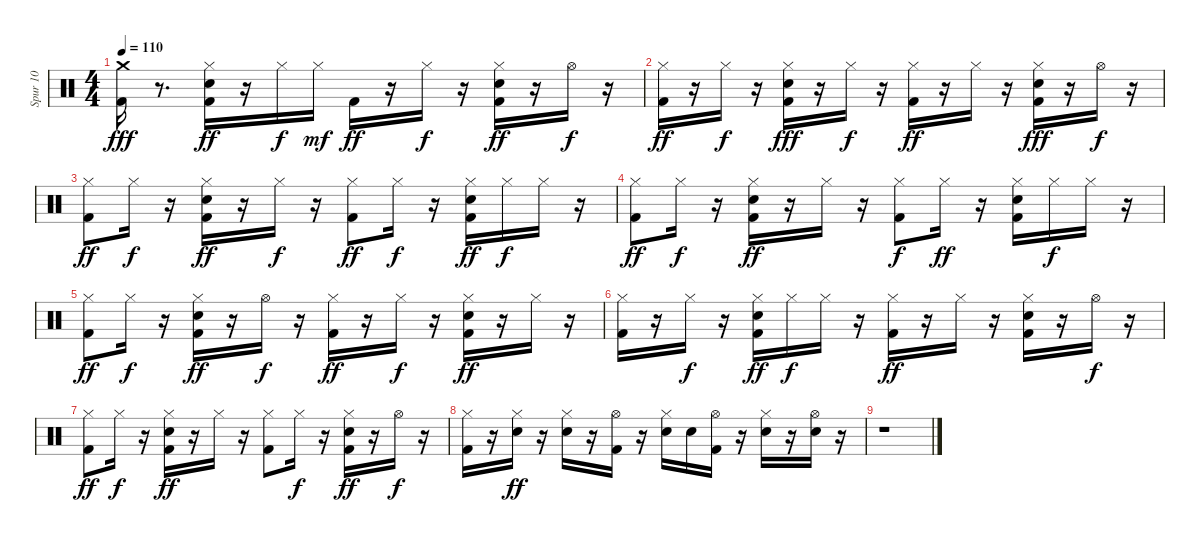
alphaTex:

\track ("Spur 10" "Spur 10") {instrument percussion}
\staff {score}
\articulation defaults
\ts (4 4)
\tempo 110
\clef neutral
\ks c
("Kick (hit) 2" "Crash medium (hit)").16{dy fff} r.8{d} ("Snare (hit) 2" "Hi-Hat (closed)" "Kick (hit) 2").16{dy ff} r.16 "Hi-Hat (closed)".16{dy f} "Hi-Hat (closed)".16{dy mf} "Kick (hit) 2".16{dy ff} r.16 "Hi-Hat (closed)".16{dy f} r.16 ("Kick (hit) 2" "Snare (hit) 2" "Hi-Hat (closed)").16{dy ff} r.16 "Hi-Hat (open)".16{dy f} r.16 |
("Kick (hit) 2" "Hi-Hat (closed)").16{dy ff} r.16 "Hi-Hat (closed)".16{dy f} r.16 ("Kick (hit) 2" "Snare (hit) 2" "Hi-Hat (closed)").16{dy fff} r.16 "Hi-Hat (closed)".16{dy f} r.16 ("Hi-Hat (closed)" "Kick (hit) 2").16{dy ff} r.16 "Hi-Hat (closed)".16 r.16 ("Hi-Hat (closed)" "Snare (hit) 2" "Kick (hit) 2").16{dy fff} r.16 "Hi-Hat (open)".16{dy f} r.16 |
("Hi-Hat (closed)" "Kick (hit) 2").8{dy ff} "Hi-Hat (closed)".16{dy f} r.16 ("Kick (hit) 2" "Snare (hit) 2" "Hi-Hat (closed)").16{dy ff} r.16 "Hi-Hat (closed)".16{dy f} r.16 ("Kick (hit) 2" "Hi-Hat (closed)").8{dy ff} "Hi-Hat (closed)".16{dy f} r.16 ("Kick (hit) 2" "Snare (hit) 2" "Hi-Hat (closed)").16{dy ff} "Hi-Hat (closed)".16{dy f} "Hi-Hat (closed)".16 r.16 |
("Kick (hit) 2" "Hi-Hat (closed)").8{dy ff} "Hi-Hat (closed)".16{dy f} r.16 ("Kick (hit) 2" "Snare (hit) 2" "Hi-Hat (closed)").16{dy ff} r.16 "Hi-Hat (closed)".16 r.16 ("Hi-Hat (closed)" "Kick (hit) 2").8{dy f} "Hi-Hat (closed)".16{dy ff} r.16 ("Kick (hit) 2" "Snare (hit) 2" "Hi-Hat (closed)").16 "Hi-Hat (closed)".16{dy f} "Hi-Hat (closed)".16 r.16 |
("Kick (hit) 2" "Hi-Hat (closed)").8{dy ff} "Hi-Hat (closed)".16{dy f} r.16 ("Kick (hit) 2" "Snare (hit) 2" "Hi-Hat (closed)").16{dy ff} r.16 "Hi-Hat (open)".16{dy f} r.16 ("Kick (hit) 2" "Hi-Hat (closed)").16{dy ff} r.16 "Hi-Hat (closed)".16{dy f} r.16 ("Kick (hit) 2" "Snare (hit) 2" "Hi-Hat (closed)").16{dy ff} r.16 "Hi-Hat (closed)".16 r.16 |
("Kick (hit) 2" "Hi-Hat (closed)").16 r.16 "Hi-Hat (closed)".16{dy f} r.16 ("Kick (hit) 2" "Hi-Hat (closed)" "Snare (hit) 2").16{dy ff} "Hi-Hat (closed)".16{dy f} "Hi-Hat (closed)".16 r.16 ("Hi-Hat (closed)" "Kick (hit) 2").16{dy ff} r.16 "Hi-Hat (closed)".16 r.16 ("Kick (hit) 2" "Snare (hit) 2" "Hi-Hat (closed)").16 r.16 "Hi-Hat (open)".16{dy f} r.16 |
("Kick (hit) 2" "Hi-Hat (closed)").8{dy ff} "Hi-Hat (closed)".16{dy f} r.16 ("Kick (hit) 2" "Snare (hit) 2" "Hi-Hat (closed)").16{dy ff} r.16 "Hi-Hat (closed)".16 r.16 ("Kick (hit) 2" "Hi-Hat (closed)").8 "Hi-Hat (closed)".16{dy f} r.16 ("Snare (hit) 2" "Kick (hit) 2" "Hi-Hat (closed)").16{dy ff} r.16 "Hi-Hat (open)".16{dy f} r.16 |
("Kick (hit) 2" "Hi-Hat (closed)").16 r.16 ("Hi-Hat (closed)" "Snare (hit) 2").16{dy ff} r.16 ("Snare (hit) 2" "Hi-Hat (closed)").16 r.16 ("Kick (hit) 2" "Hi-Hat (open)").16 r.16 ("Hi-Hat (closed)" "Snare (hit) 2").16 "Snare (hit) 2".16 ("Kick (hit) 2" "Hi-Hat (open)").16 r.16 ("Snare (hit) 2" "Hi-Hat (closed)").16 r.16 ("Snare (hit) 2" "Hi-Hat (open)").16 r.16 |
r.1
